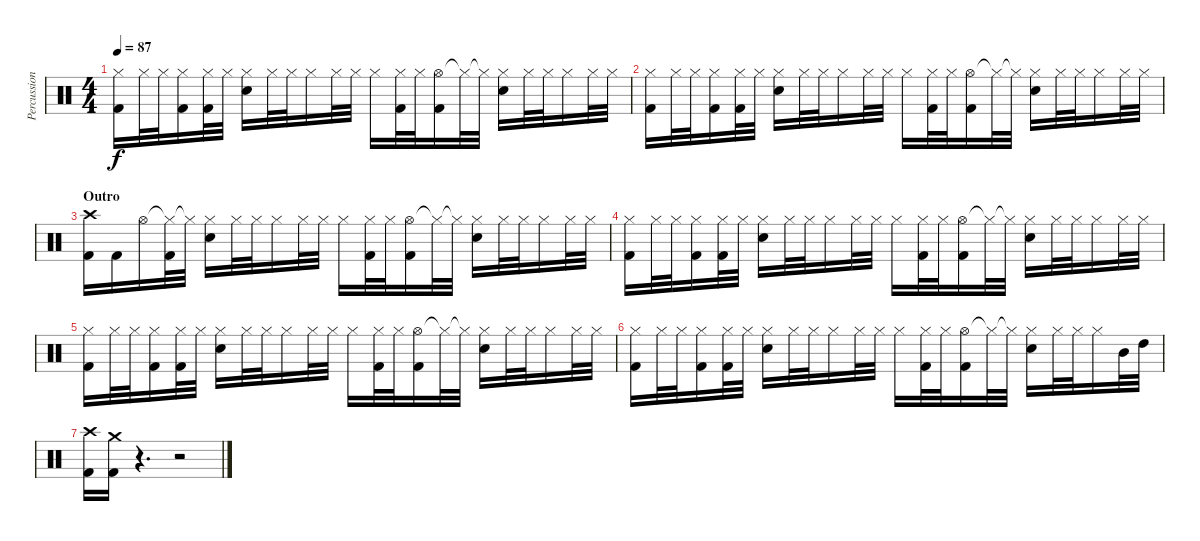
\track ("Percussion" "Percussion") {instrument percussion}
\staff {score}
\articulation defaults
\ts (4 4)
\tempo 87
\clef neutral
\ks c
("Hi-Hat (closed)" "Kick (hit) 2").16{dy f} "Hi-Hat (closed)".32 "Hi-Hat (closed)".32 ("Hi-Hat (closed)" "Kick (hit) 2").16 ("Hi-Hat (closed)" "Kick (hit) 2").32 "Hi-Hat (closed)".32 ("Hi-Hat (closed)" "Electric Snare (hit)").16 "Hi-Hat (closed)".32 "Hi-Hat (closed)".32 "Hi-Hat (closed)".16 "Hi-Hat (closed)".32 "Hi-Hat (closed)".32 "Hi-Hat (closed)".16 ("Hi-Hat (closed)" "Kick (hit) 2").32 "Hi-Hat (closed)".32 ("Hi-Hat (open)" "Kick (hit) 2").16 "Hi-Hat (closed)"{t}.32 "Hi-Hat (closed)"{t}.32 ("Hi-Hat (closed)" "Electric Snare (hit)").16 "Hi-Hat (closed)".32 "Hi-Hat (closed)".32 "Hi-Hat (closed)".16 "Hi-Hat (closed)".32 "Hi-Hat (closed)".32 |
("Hi-Hat (closed)" "Kick (hit) 2").16 "Hi-Hat (closed)".32 "Hi-Hat (closed)".32 ("Hi-Hat (closed)" "Kick (hit) 2").16 ("Hi-Hat (closed)" "Kick (hit) 2").32 "Hi-Hat (closed)".32 ("Hi-Hat (closed)" "Electric Snare (hit)").16 "Hi-Hat (closed)".32 "Hi-Hat (closed)".32 "Hi-Hat (closed)".16 "Hi-Hat (closed)".32 "Hi-Hat (closed)".32 "Hi-Hat (closed)".16 ("Hi-Hat (closed)" "Kick (hit) 2").32 "Hi-Hat (closed)".32 ("Hi-Hat (open)" "Kick (hit) 2").16 "Hi-Hat (closed)"{t}.32 "Hi-Hat (closed)"{t}.32 ("Hi-Hat (closed)" "Electric Snare (hit)").16 "Hi-Hat (closed)".32 "Hi-Hat (closed)".32 "Hi-Hat (closed)".16 "Hi-Hat (closed)".32 "Hi-Hat (closed)".32 |
\section ("" "Outro")
("Crash high (hit)" "Kick (hit) 2").16 "Kick (hit) 2".16 "Hi-Hat (open)".16 ("Hi-Hat (closed)"{t} "Kick (hit) 2").32 "Hi-Hat (closed)"{t}.32 ("Hi-Hat (closed)" "Electric Snare (hit)").16 "Hi-Hat (closed)".32 "Hi-Hat (closed)".32 "Hi-Hat (closed)".16 "Hi-Hat (closed)".32 "Hi-Hat (closed)".32 "Hi-Hat (closed)".16 ("Hi-Hat (closed)" "Kick (hit) 2").32 "Hi-Hat (closed)".32 ("Hi-Hat (open)" "Kick (hit) 2").16 "Hi-Hat (closed)"{t}.32 "Hi-Hat (closed)"{t}.32 ("Hi-Hat (closed)" "Electric Snare (hit)").16 "Hi-Hat (closed)".32 "Hi-Hat (closed)".32 "Hi-Hat (closed)".16 "Hi-Hat (closed)".32 "Hi-Hat (closed)".32 |
("Hi-Hat (closed)" "Kick (hit) 2").16 "Hi-Hat (closed)".32 "Hi-Hat (closed)".32 ("Hi-Hat (closed)" "Kick (hit) 2").16 ("Hi-Hat (closed)" "Kick (hit) 2").32 "Hi-Hat (closed)".32 ("Hi-Hat (closed)" "Electric Snare (hit)").16 "Hi-Hat (closed)".32 "Hi-Hat (closed)".32 "Hi-Hat (closed)".16 "Hi-Hat (closed)".32 "Hi-Hat (closed)".32 "Hi-Hat (closed)".16 ("Hi-Hat (closed)" "Kick (hit) 2").32 "Hi-Hat (closed)".32 ("Hi-Hat (open)" "Kick (hit) 2").16 "Hi-Hat (closed)"{t}.32 "Hi-Hat (closed)"{t}.32 ("Hi-Hat (closed)" "Electric Snare (hit)").16 "Hi-Hat (closed)".32 "Hi-Hat (closed)".32 "Hi-Hat (closed)".16 "Hi-Hat (closed)".32 "Hi-Hat (closed)".32 |
("Hi-Hat (closed)" "Kick (hit) 2").16 "Hi-Hat (closed)".32 "Hi-Hat (closed)".32 ("Hi-Hat (closed)" "Kick (hit) 2").16 ("Hi-Hat (closed)" "Kick (hit) 2").32 "Hi-Hat (closed)".32 ("Hi-Hat (closed)" "Electric Snare (hit)").16 "Hi-Hat (closed)".32 "Hi-Hat (closed)".32 "Hi-Hat (closed)".16 "Hi-Hat (closed)".32 "Hi-Hat (closed)".32 "Hi-Hat (closed)".16 ("Hi-Hat (closed)" "Kick (hit) 2").32 "Hi-Hat (closed)".32 ("Hi-Hat (open)" "Kick (hit) 2").16 "Hi-Hat (closed)"{t}.32 "Hi-Hat (closed)"{t}.32 ("Hi-Hat (closed)" "Electric Snare (hit)").16 "Hi-Hat (closed)".32 "Hi-Hat (closed)".32 "Hi-Hat (closed)".16 "Hi-Hat (closed)".32 "Hi-Hat (closed)".32 |
("Hi-Hat (closed)" "Kick (hit) 2").16 "Hi-Hat (closed)".32 "Hi-Hat (closed)".32 ("Hi-Hat (closed)" "Kick (hit) 2").16 ("Hi-Hat (closed)" "Kick (hit) 2").32 "Hi-Hat (closed)".32 ("Hi-Hat (closed)" "Electric Snare (hit)").16 "Hi-Hat (closed)".32 "Hi-Hat (closed)".32 "Hi-Hat (closed)".16 "Hi-Hat (closed)".32 "Hi-Hat (closed)".32 "Hi-Hat (closed)".16 ("Hi-Hat (closed)" "Kick (hit) 2").32 "Hi-Hat (closed)".32 ("Hi-Hat (open)" "Kick (hit) 2").16 "Hi-Hat (closed)"{t}.32 "Hi-Hat (closed)"{t}.32 ("Hi-Hat (closed)" "Electric Snare (hit)").16 "Hi-Hat (closed)".32 "Hi-Hat (closed)".32 "Hi-Hat (closed)".16 "Mid Tom (hit)".32 "High Tom (hit)".32 |
("Crash high (hit)" "Kick (hit) 2").16 ("Crash medium (hit)" "Kick (hit) 2").16 r.4{d} r.2
